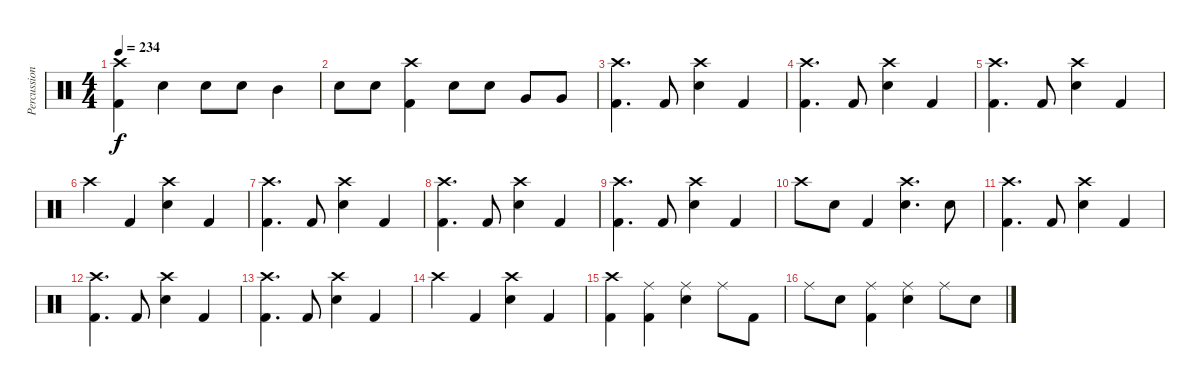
\track ("Percussions" "Percussion") {instrument percussion}
\staff {score}
\articulation defaults
\ts (4 4)
\tempo 234
\clef neutral
\ks c
("Crash high (hit)" "Kick (hit) 2").4{dy f} "Snare (hit) 2".4 "Snare (hit) 2".8 "Snare (hit) 2".8 "Mid Tom (hit)".4 |
"Snare (hit) 2".8 "Snare (hit) 2".8 ("Crash high (hit)" "Kick (hit) 2").4 "Snare (hit) 2".8 "Snare (hit) 2".8 "Very Low Tom (hit)".8 "Very Low Tom (hit)".8 |
("Crash high (hit)" "Kick (hit) 2").4{d} "Kick (hit) 2".8 ("Crash high (hit)" "Snare (hit) 2").4 "Kick (hit) 2".4 |
("Crash high (hit)" "Kick (hit) 2").4{d} "Kick (hit) 2".8 ("Crash high (hit)" "Snare (hit) 2").4 "Kick (hit) 2".4 |
("Crash high (hit)" "Kick (hit) 2").4{d} "Kick (hit) 2".8 ("Crash high (hit)" "Snare (hit) 2").4 "Kick (hit) 2".4 |
"Crash high (hit)".4 "Kick (hit) 2".4 ("Crash high (hit)" "Snare (hit) 2").4 "Kick (hit) 2".4 |
("Crash high (hit)" "Kick (hit) 2").4{d} "Kick (hit) 2".8 ("Crash high (hit)" "Snare (hit) 2").4 "Kick (hit) 2".4 |
("Crash high (hit)" "Kick (hit) 2").4{d} "Kick (hit) 2".8 ("Crash high (hit)" "Snare (hit) 2").4 "Kick (hit) 2".4 |
("Crash high (hit)" "Kick (hit) 2").4{d} "Kick (hit) 2".8 ("Crash high (hit)" "Snare (hit) 2").4 "Kick (hit) 2".4 |
"Crash high (hit)".8 "Snare (hit) 2".8 "Kick (hit) 2".4 ("Crash high (hit)" "Snare (hit) 2").4{d} "Snare (hit) 2".8 |
("Crash high (hit)" "Kick (hit) 2").4{d} "Kick (hit) 2".8 ("Crash high (hit)" "Snare (hit) 2").4 "Kick (hit) 2".4 |
("Crash high (hit)" "Kick (hit) 2").4{d} "Kick (hit) 2".8 ("Crash high (hit)" "Snare (hit) 2").4 "Kick (hit) 2".4 |
("Crash high (hit)" "Kick (hit) 2").4{d} "Kick (hit) 2".8 ("Crash high (hit)" "Snare (hit) 2").4 "Kick (hit) 2".4 |
"Crash high (hit)".4 "Kick (hit) 2".4 ("Crash high (hit)" "Snare (hit) 2").4 "Kick (hit) 2".4 |
("Crash high (hit)" "Kick (hit) 2").4 ("Ride (middle)" "Kick (hit) 2").4 ("Ride (middle)" "Snare (hit) 2").4 "Ride (middle)".8 "Kick (hit) 2".8 |
"Ride (middle)".8 "Snare (hit) 2".8 ("Ride (middle)" "Kick (hit) 2").4 ("Ride (middle)" "Snare (hit) 2").4 "Ride (middle)".8 "Snare (hit) 2".8
